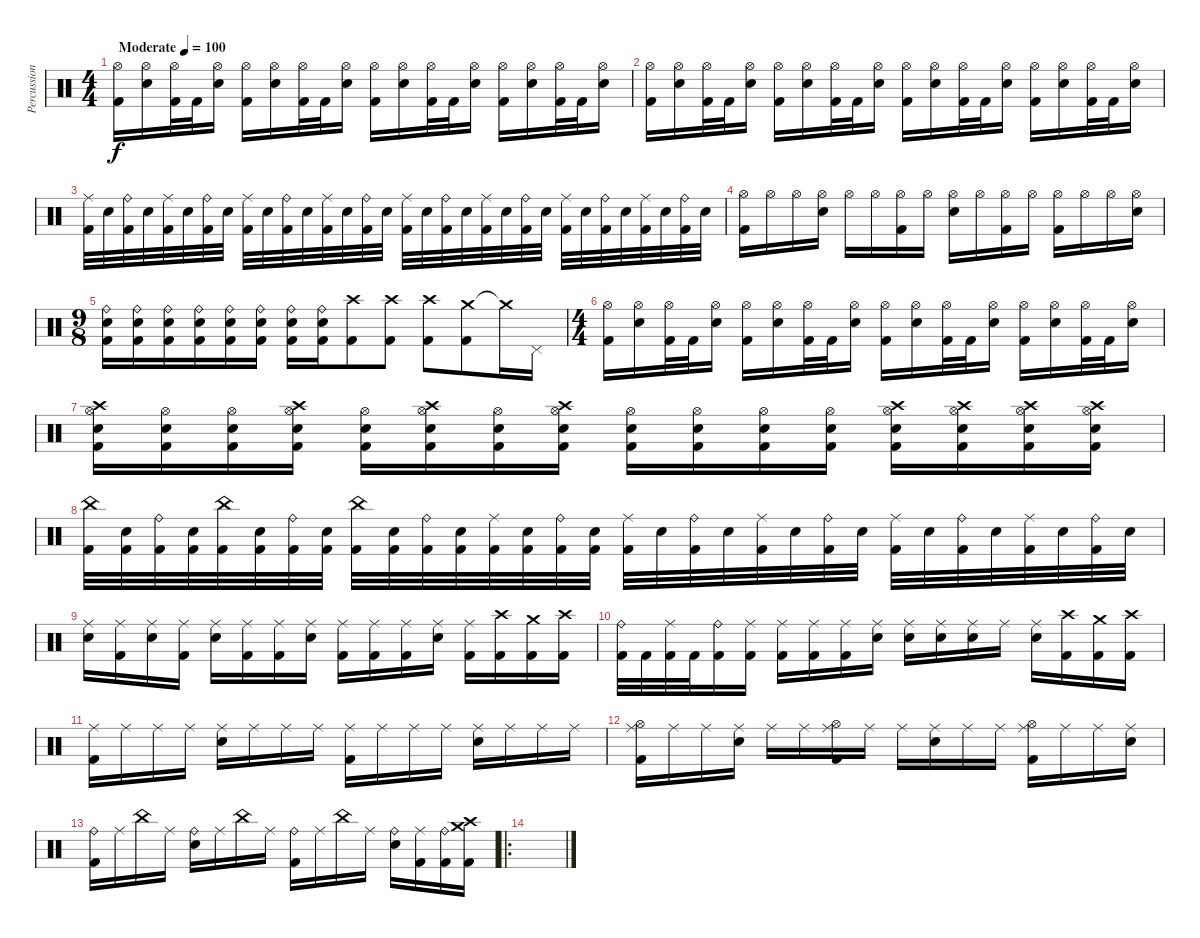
\track ("Percussion" "Percussion") {instrument percussion}
\staff {score}
\articulation defaults
\ts (4 4)
\tempo (100 "Moderate")
\clef neutral
\ks c
("Hi-Hat (open)" "Kick (hit) 2").16{dy f} ("Hi-Hat (open)" "Electric Snare (hit)").16 ("Hi-Hat (open)" "Kick (hit) 2").32 "Kick (hit) 2".32 ("Hi-Hat (open)" "Electric Snare (hit)").16 ("Hi-Hat (open)" "Kick (hit) 2").16 ("Hi-Hat (open)" "Electric Snare (hit)").16 ("Hi-Hat (open)" "Kick (hit) 2").32 "Kick (hit) 2".32 ("Hi-Hat (open)" "Electric Snare (hit)").16 ("Hi-Hat (open)" "Kick (hit) 2").16 ("Hi-Hat (open)" "Electric Snare (hit)").16 ("Hi-Hat (open)" "Kick (hit) 2").32 "Kick (hit) 2".32 ("Hi-Hat (open)" "Electric Snare (hit)").16 ("Hi-Hat (open)" "Kick (hit) 2").16 ("Hi-Hat (open)" "Electric Snare (hit)").16 ("Hi-Hat (open)" "Kick (hit) 2").32 "Kick (hit) 2".32 ("Hi-Hat (open)" "Electric Snare (hit)").16 |
("Hi-Hat (open)" "Kick (hit) 2").16 ("Hi-Hat (open)" "Electric Snare (hit)").16 ("Hi-Hat (open)" "Kick (hit) 2").32 "Kick (hit) 2".32 ("Hi-Hat (open)" "Electric Snare (hit)").16 ("Hi-Hat (open)" "Kick (hit) 2").16 ("Hi-Hat (open)" "Electric Snare (hit)").16 ("Hi-Hat (open)" "Kick (hit) 2").32 "Kick (hit) 2".32 ("Hi-Hat (open)" "Electric Snare (hit)").16 ("Hi-Hat (open)" "Kick (hit) 2").16 ("Hi-Hat (open)" "Electric Snare (hit)").16 ("Hi-Hat (open)" "Kick (hit) 2").32 "Kick (hit) 2".32 ("Hi-Hat (open)" "Electric Snare (hit)").16 ("Hi-Hat (open)" "Kick (hit) 2").16 ("Hi-Hat (open)" "Electric Snare (hit)").16 ("Hi-Hat (open)" "Kick (hit) 2").32 "Kick (hit) 2".32 ("Hi-Hat (open)" "Electric Snare (hit)").16 |
("Ride (middle)" "Kick (hit) 2").32 "Electric Snare (hit)".32 ("Ride (bell)" "Kick (hit) 2").32 "Electric Snare (hit)".32 ("Ride (middle)" "Kick (hit) 2").32 "Electric Snare (hit)".32 ("Ride (bell)" "Kick (hit) 2").32 "Electric Snare (hit)".32 ("Ride (middle)" "Kick (hit) 2").32 "Electric Snare (hit)".32 ("Ride (bell)" "Kick (hit) 2").32 "Electric Snare (hit)".32 ("Ride (middle)" "Kick (hit) 2").32 "Electric Snare (hit)".32 ("Ride (bell)" "Kick (hit) 2").32 "Electric Snare (hit)".32 ("Ride (middle)" "Kick (hit) 2").32 "Electric Snare (hit)".32 ("Ride (bell)" "Kick (hit) 2").32 "Electric Snare (hit)".32 ("Ride (middle)" "Kick (hit) 2").32 "Electric Snare (hit)".32 ("Ride (bell)" "Kick (hit) 2").32 "Electric Snare (hit)".32 ("Ride (middle)" "Kick (hit) 2").32 "Electric Snare (hit)".32 ("Ride (bell)" "Kick (hit) 2").32 "Electric Snare (hit)".32 ("Ride (middle)" "Kick (hit) 2").32 "Electric Snare (hit)".32 ("Ride (bell)" "Kick (hit) 2").32 "Electric Snare (hit)".32 |
("Hi-Hat (open)" "Kick (hit) 2").16 "Hi-Hat (open)".16 "Hi-Hat (open)".16 ("Hi-Hat (open)" "Electric Snare (hit)").16 "Hi-Hat (open)".16 "Hi-Hat (open)".16 ("Hi-Hat (open)" "Kick (hit) 2").16 "Hi-Hat (open)".16 ("Hi-Hat (open)" "Electric Snare (hit)").16 "Hi-Hat (open)".16 ("Hi-Hat (open)" "Kick (hit) 2").16 "Hi-Hat (open)".16 ("Hi-Hat (open)" "Kick (hit) 2").16 "Hi-Hat (open)".16 "Hi-Hat (open)".16 ("Hi-Hat (open)" "Electric Snare (hit)").16 |
\ts (9 8)
("Ride (bell)" "Electric Snare (hit)" "Kick (hit) 2").16 ("Ride (bell)" "Electric Snare (hit)" "Kick (hit) 2").16 ("Ride (bell)" "Electric Snare (hit)" "Kick (hit) 2").16 ("Ride (bell)" "Electric Snare (hit)" "Kick (hit) 2").16 ("Ride (bell)" "Electric Snare (hit)" "Kick (hit) 2").16 ("Ride (bell)" "Electric Snare (hit)" "Kick (hit) 2").16 ("Ride (bell)" "Electric Snare (hit)" "Kick (hit) 2").16 ("Ride (bell)" "Electric Snare (hit)" "Kick (hit) 2").16 ("Crash high (hit)" "Kick (hit) 2").8 ("Crash high (hit)" "Kick (hit) 2").8 ("Crash high (hit)" "Kick (hit) 2").8 ("Crash medium (hit)" "Kick (hit) 2").8 "Crash medium (hit)"{t}.16 "Pedal Hi-Hat (hit)".16 |
\ts (4 4)
("Hi-Hat (open)" "Kick (hit) 2").16 ("Hi-Hat (open)" "Electric Snare (hit)").16 ("Hi-Hat (open)" "Kick (hit) 2").32 "Kick (hit) 2".32 ("Hi-Hat (open)" "Electric Snare (hit)").16 ("Hi-Hat (open)" "Kick (hit) 2").16 ("Hi-Hat (open)" "Electric Snare (hit)").16 ("Hi-Hat (open)" "Kick (hit) 2").32 "Kick (hit) 2".32 ("Hi-Hat (open)" "Electric Snare (hit)").16 ("Hi-Hat (open)" "Kick (hit) 2").16 ("Hi-Hat (open)" "Electric Snare (hit)").16 ("Hi-Hat (open)" "Kick (hit) 2").32 "Kick (hit) 2".32 ("Hi-Hat (open)" "Electric Snare (hit)").16 ("Hi-Hat (open)" "Kick (hit) 2").16 ("Hi-Hat (open)" "Electric Snare (hit)").16 ("Hi-Hat (open)" "Kick (hit) 2").32 "Kick (hit) 2".32 ("Hi-Hat (open)" "Electric Snare (hit)").16 |
("Crash high (hit)" "Hi-Hat (open)" "Electric Snare (hit)" "Kick (hit) 2").16 ("Hi-Hat (open)" "Electric Snare (hit)" "Kick (hit) 2").16 ("Hi-Hat (open)" "Electric Snare (hit)" "Kick (hit) 2").16 ("Crash high (hit)" "Hi-Hat (open)" "Electric Snare (hit)" "Kick (hit) 2").16 ("Hi-Hat (open)" "Electric Snare (hit)" "Kick (hit) 2").16 ("Crash high (hit)" "Hi-Hat (open)" "Electric Snare (hit)" "Kick (hit) 2").16 ("Hi-Hat (open)" "Electric Snare (hit)" "Kick (hit) 2").16 ("Crash high (hit)" "Hi-Hat (open)" "Electric Snare (hit)" "Kick (hit) 2").16 ("Hi-Hat (open)" "Electric Snare (hit)" "Kick (hit) 2").16 ("Hi-Hat (open)" "Electric Snare (hit)" "Kick (hit) 2").16 ("Hi-Hat (open)" "Electric Snare (hit)" "Kick (hit) 2").16 ("Hi-Hat (open)" "Electric Snare (hit)" "Kick (hit) 2").16 ("Crash high (hit)" "Hi-Hat (open)" "Electric Snare (hit)" "Kick (hit) 2").16 ("Crash high (hit)" "Hi-Hat (open)" "Electric Snare (hit)" "Kick (hit) 2").16 ("Crash high (hit)" "Hi-Hat (open)" "Electric Snare (hit)" "Kick (hit) 2").16 ("Crash high (hit)" "Hi-Hat (open)" "Electric Snare (hit)" "Kick (hit) 2").16 |
("China (hit)" "Kick (hit) 2").32 ("Electric Snare (hit)" "Kick (hit) 2").32 ("Ride (bell)" "Kick (hit) 2").32 ("Electric Snare (hit)" "Kick (hit) 2").32 ("China (hit)" "Kick (hit) 2").32 ("Electric Snare (hit)" "Kick (hit) 2").32 ("Ride (bell)" "Kick (hit) 2").32 ("Electric Snare (hit)" "Kick (hit) 2").32 ("China (hit)" "Kick (hit) 2").32 ("Electric Snare (hit)" "Kick (hit) 2").32 ("Ride (bell)" "Kick (hit) 2").32 ("Electric Snare (hit)" "Kick (hit) 2").32 ("Ride (middle)" "Kick (hit) 2").32 ("Electric Snare (hit)" "Kick (hit) 2").32 ("Ride (bell)" "Kick (hit) 2").32 ("Electric Snare (hit)" "Kick (hit) 2").32 ("Ride (middle)" "Kick (hit) 2").32 "Electric Snare (hit)".32 ("Ride (bell)" "Kick (hit) 2").32 "Electric Snare (hit)".32 ("Ride (middle)" "Kick (hit) 2").32 "Electric Snare (hit)".32 ("Ride (bell)" "Kick (hit) 2").32 "Electric Snare (hit)".32 ("Ride (middle)" "Kick (hit) 2").32 "Electric Snare (hit)".32 ("Ride (bell)" "Kick (hit) 2").32 "Electric Snare (hit)".32 ("Ride (middle)" "Kick (hit) 2").32 "Electric Snare (hit)".32 ("Ride (bell)" "Kick (hit) 2").32 "Electric Snare (hit)".32 |
("Ride (middle)" "Electric Snare (hit)").16 ("Ride (middle)" "Kick (hit) 2").16 ("Ride (middle)" "Electric Snare (hit)").16 ("Ride (middle)" "Kick (hit) 2").16 ("Ride (middle)" "Electric Snare (hit)").16 ("Ride (middle)" "Kick (hit) 2").16 ("Ride (middle)" "Kick (hit) 2").16 ("Ride (middle)" "Electric Snare (hit)").16 ("Ride (middle)" "Kick (hit) 2").16 ("Ride (middle)" "Kick (hit) 2").16 ("Ride (middle)" "Kick (hit) 2").16 ("Ride (middle)" "Electric Snare (hit)").16 ("Ride (middle)" "Kick (hit) 2").16 ("Crash high (hit)" "Kick (hit) 2").16 ("Crash medium (hit)" "Kick (hit) 2").16 ("Crash high (hit)" "Kick (hit) 2").16 |
("Ride (bell)" "Kick (hit) 2").32 "Kick (hit) 2".32 ("Ride (middle)" "Kick (hit) 2").32 "Kick (hit) 2".32 ("Ride (bell)" "Kick (hit) 2").16 ("Ride (middle)" "Kick (hit) 2").16 ("Ride (middle)" "Kick (hit) 2").16 ("Ride (middle)" "Kick (hit) 2").16 ("Ride (middle)" "Kick (hit) 2").16 ("Ride (middle)" "Electric Snare (hit)").16 ("Ride (middle)" "Electric Snare (hit)").16 ("Ride (middle)" "Electric Snare (hit)").16 ("Ride (middle)" "Electric Snare (hit)").16 "Ride (middle)".16 ("Ride (middle)" "Electric Snare (hit)").16 ("Crash high (hit)" "Kick (hit) 2").16 ("Crash medium (hit)" "Kick (hit) 2").16 ("Crash high (hit)" "Kick (hit) 2").16 |
("Ride (middle)" "Kick (hit) 2").16 "Ride (middle)".16 "Ride (middle)".16 "Ride (middle)".16 ("Ride (middle)" "Electric Snare (hit)").16 "Ride (middle)".16 "Ride (middle)".16 "Ride (middle)".16 ("Ride (middle)" "Kick (hit) 2").16 "Ride (middle)".16 "Ride (middle)".16 "Ride (middle)".16 ("Ride (middle)" "Electric Snare (hit)").16 "Ride (middle)".16 "Ride (middle)".16 "Ride (middle)".16 |
("Ride (middle)" "Hi-Hat (open)" "Kick (hit) 2").16 "Ride (middle)".16 "Ride (middle)".16 ("Ride (middle)" "Electric Snare (hit)").16 "Ride (middle)".16 "Ride (middle)".16 ("Hi-Hat (open)" "Ride (middle)" "Kick (hit) 2").16 "Ride (middle)".16 "Ride (middle)".16 ("Ride (middle)" "Electric Snare (hit)").16 "Ride (middle)".16 "Ride (middle)".16 ("Hi-Hat (open)" "Ride (middle)" "Kick (hit) 2").16 "Ride (middle)".16 "Ride (middle)".16 ("Ride (middle)" "Electric Snare (hit)").16 |
("Ride (bell)" "Kick (hit) 2").16 "Ride (middle)".16 "China (hit)".16 "Ride (middle)".16 ("Ride (bell)" "Electric Snare (hit)").16 "Ride (middle)".16 "China (hit)".16 "Ride (middle)".16 ("Ride (bell)" "Kick (hit) 2").16 "Ride (middle)".16 "China (hit)".16 "Ride (middle)".16 ("Ride (bell)" "Electric Snare (hit)").16 ("Ride (middle)" "Kick (hit) 2").16 ("Ride (bell)" "Kick (hit) 2").16 ("Crash medium (hit)" "Crash high (hit)" "Kick (hit) 2").16 |
\ro
